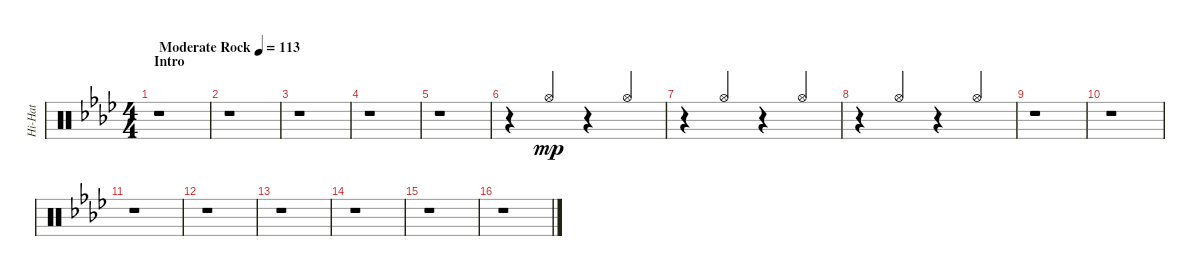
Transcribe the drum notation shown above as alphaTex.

\track ("Hi-Hat" "Hi-Hat") {instrument percussion}
\staff {score}
\articulation defaults
\ts (4 4)
\section ("" "Intro")
\tempo (113 "Moderate Rock")
\clef neutral
\ks fminor
r.1{dy mp volume 9 balance 10} |
r.1 |
r.1 |
r.1 |
r.1 |
r.4 "Hi-Hat (open)".4{beam Up} r.4 "Hi-Hat (open)".4{beam Up} |
r.4 "Hi-Hat (open)".4{beam Up} r.4 "Hi-Hat (open)".4{beam Up} |
r.4 "Hi-Hat (open)".4{beam Up} r.4 "Hi-Hat (open)".4{beam Up} |
r.1 |
r.1 |
r.1 |
r.1 |
r.1 |
r.1 |
r.1 |
r.1
